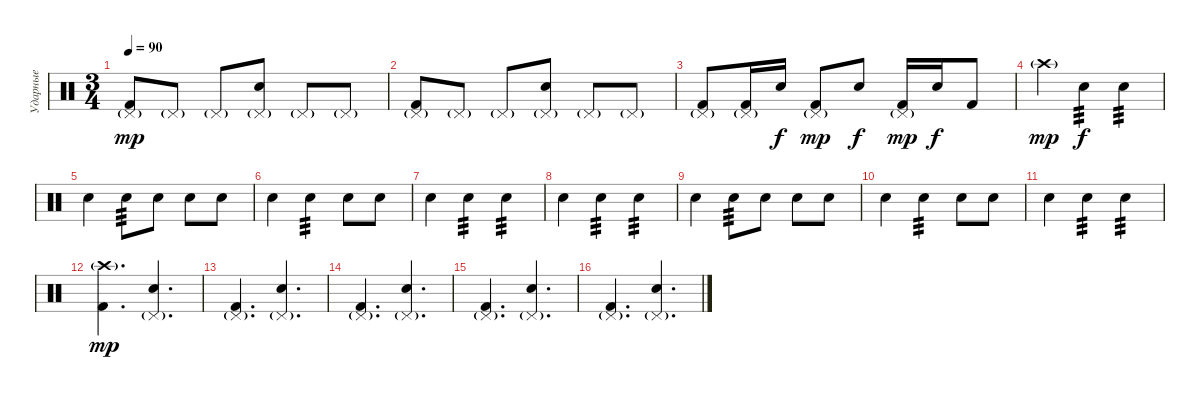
\track ("Ударные" "Ударные") {instrument percussion}
\staff {score}
\articulation defaults
\ts (3 4)
\tempo 90
\clef neutral
\ks c
("Kick (hit) 2" "Pedal Hi-Hat (hit)"{g}).8{dy mp} "Pedal Hi-Hat (hit)"{g}.8 "Pedal Hi-Hat (hit)"{g}.8 ("Electric Snare (hit)" "Pedal Hi-Hat (hit)"{g}).8 "Pedal Hi-Hat (hit)"{g}.8 "Pedal Hi-Hat (hit)"{g}.8 |
("Kick (hit) 2" "Pedal Hi-Hat (hit)"{g}).8 "Pedal Hi-Hat (hit)"{g}.8 "Pedal Hi-Hat (hit)"{g}.8 ("Electric Snare (hit)" "Pedal Hi-Hat (hit)"{g}).8 "Pedal Hi-Hat (hit)"{g}.8 "Pedal Hi-Hat (hit)"{g}.8 |
("Kick (hit) 2" "Pedal Hi-Hat (hit)"{g}).8 ("Kick (hit) 2" "Pedal Hi-Hat (hit)"{g}).16 "Electric Snare (hit)".16{dy f} ("Kick (hit) 2" "Pedal Hi-Hat (hit)"{g}).8{dy mp} "Electric Snare (hit)".8{dy f} ("Kick (hit) 2" "Pedal Hi-Hat (hit)"{g}).16{dy mp} "Electric Snare (hit)".16{dy f} "Kick (hit) 2".8 |
"Crash high (hit)"{g}.4{dy mp} "Electric Snare (hit)".4{tp 3 dy f} "Electric Snare (hit)".4{tp 3} |
"Electric Snare (hit)".4 "Electric Snare (hit)".8{tp 3} "Electric Snare (hit)".8 "Electric Snare (hit)".8 "Electric Snare (hit)".8 |
"Electric Snare (hit)".4 "Electric Snare (hit)".4{tp 3} "Electric Snare (hit)".8 "Electric Snare (hit)".8 |
"Electric Snare (hit)".4 "Electric Snare (hit)".4{tp 3} "Electric Snare (hit)".4{tp 3} |
"Electric Snare (hit)".4 "Electric Snare (hit)".4{tp 3} "Electric Snare (hit)".4{tp 3} |
"Electric Snare (hit)".4 "Electric Snare (hit)".8{tp 3} "Electric Snare (hit)".8 "Electric Snare (hit)".8 "Electric Snare (hit)".8 |
"Electric Snare (hit)".4 "Electric Snare (hit)".4{tp 3} "Electric Snare (hit)".8 "Electric Snare (hit)".8 |
"Electric Snare (hit)".4 "Electric Snare (hit)".4{tp 3} "Electric Snare (hit)".4{tp 3} |
("Kick (hit) 2" "Crash high (hit)"{g}).4{d dy mp} ("Electric Snare (hit)" "Pedal Hi-Hat (hit)"{g}).4{d} |
("Kick (hit) 2" "Pedal Hi-Hat (hit)"{g}).4{d} ("Electric Snare (hit)" "Pedal Hi-Hat (hit)"{g}).4{d} |
("Kick (hit) 2" "Pedal Hi-Hat (hit)"{g}).4{d} ("Electric Snare (hit)" "Pedal Hi-Hat (hit)"{g}).4{d} |
("Kick (hit) 2" "Pedal Hi-Hat (hit)"{g}).4{d} ("Electric Snare (hit)" "Pedal Hi-Hat (hit)"{g}).4{d} |
("Kick (hit) 2" "Pedal Hi-Hat (hit)"{g}).4{d} ("Electric Snare (hit)" "Pedal Hi-Hat (hit)"{g}).4{d}
